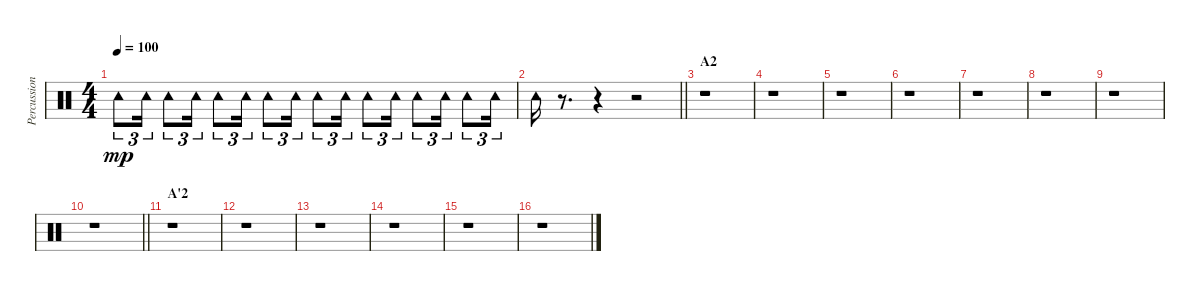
\track ("Percussion" "Percussion") {instrument percussion}
\staff {score}
\articulation defaults
\ts (4 4)
\tempo 100
\clef neutral
\ks c "Tambourine (hit)".8{tu (3 2) dy mp} "Tambourine (hit)".16{tu (3 2)} "Tambourine (hit)".8{tu (3 2)} "Tambourine (hit)".16{tu (3 2)} "Tambourine (hit)".8{tu (3 2)} "Tambourine (hit)".16{tu (3 2)} "Tambourine (hit)".8{tu (3 2)} "Tambourine (hit)".16{tu (3 2)} "Tambourine (hit)".8{tu (3 2)} "Tambourine (hit)".16{tu (3 2)} "Tambourine (hit)".8{tu (3 2)} "Tambourine (hit)".16{tu (3 2)} "Tambourine (hit)".8{tu (3 2)} "Tambourine (hit)".16{tu (3 2)} "Tambourine (hit)".8{tu (3 2)} "Tambourine (hit)".16{tu (3 2)}
|
\barLineRight lightlight "Tambourine (hit)".16
r.8{d} r.4 r.2 |
\section ("" "A2")
r.1 |
r.1 |
r.1 |
r.1 |
r.1 |
r.1 |
r.1 |
\barLineRight lightlight
r.1 |
\section ("" "A'2")
r.1 |
r.1 |
r.1 |
r.1 |
r.1 |
r.1
